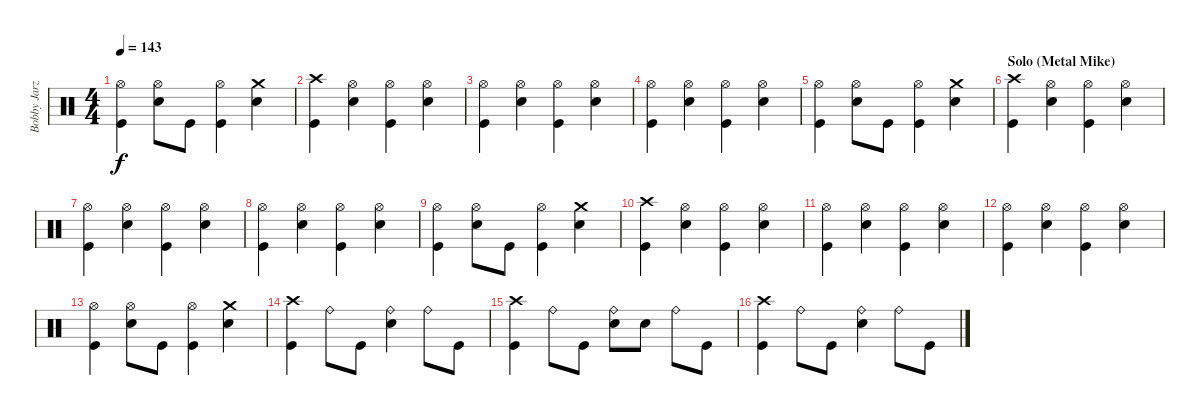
\track ("Bobby Jarzombek" "Bobby Jarz") {instrument percussion}
\staff {score}
\articulation defaults
\ts (4 4)
\tempo 143
\clef neutral
\ks c
("Hi-Hat (open)" "Kick (hit)").4{dy f} ("Hi-Hat (open)" "Electric Snare (hit)").8 "Kick (hit)".8 ("Hi-Hat (open)" "Kick (hit)").4 ("Crash medium (hit)" "Electric Snare (hit)").4 |
("Crash high (hit)" "Kick (hit)").4 ("Hi-Hat (open)" "Electric Snare (hit)").4 ("Hi-Hat (open)" "Kick (hit)").4 ("Hi-Hat (open)" "Electric Snare (hit)").4 |
("Hi-Hat (open)" "Kick (hit)").4 ("Hi-Hat (open)" "Electric Snare (hit)").4 ("Hi-Hat (open)" "Kick (hit)").4 ("Hi-Hat (open)" "Electric Snare (hit)").4 |
("Hi-Hat (open)" "Kick (hit)").4 ("Hi-Hat (open)" "Electric Snare (hit)").4 ("Hi-Hat (open)" "Kick (hit)").4 ("Hi-Hat (open)" "Electric Snare (hit)").4 |
("Hi-Hat (open)" "Kick (hit)").4 ("Hi-Hat (open)" "Electric Snare (hit)").8 "Kick (hit)".8 ("Hi-Hat (open)" "Kick (hit)").4 ("Crash medium (hit)" "Electric Snare (hit)").4 |
\section ("" "Solo (Metal Mike)")
("Crash high (hit)" "Kick (hit)").4 ("Hi-Hat (open)" "Electric Snare (hit)").4 ("Hi-Hat (open)" "Kick (hit)").4 ("Hi-Hat (open)" "Electric Snare (hit)").4 |
("Hi-Hat (open)" "Kick (hit)").4 ("Hi-Hat (open)" "Electric Snare (hit)").4 ("Hi-Hat (open)" "Kick (hit)").4 ("Hi-Hat (open)" "Electric Snare (hit)").4 |
("Hi-Hat (open)" "Kick (hit)").4 ("Hi-Hat (open)" "Electric Snare (hit)").4 ("Hi-Hat (open)" "Kick (hit)").4 ("Hi-Hat (open)" "Electric Snare (hit)").4 |
("Hi-Hat (open)" "Kick (hit)").4 ("Hi-Hat (open)" "Electric Snare (hit)").8 "Kick (hit)".8 ("Hi-Hat (open)" "Kick (hit)").4 ("Crash medium (hit)" "Electric Snare (hit)").4 |
("Crash high (hit)" "Kick (hit)").4 ("Hi-Hat (open)" "Electric Snare (hit)").4 ("Hi-Hat (open)" "Kick (hit)").4 ("Hi-Hat (open)" "Electric Snare (hit)").4 |
("Hi-Hat (open)" "Kick (hit)").4 ("Hi-Hat (open)" "Electric Snare (hit)").4 ("Hi-Hat (open)" "Kick (hit)").4 ("Hi-Hat (open)" "Electric Snare (hit)").4 |
("Hi-Hat (open)" "Kick (hit)").4 ("Hi-Hat (open)" "Electric Snare (hit)").4 ("Hi-Hat (open)" "Kick (hit)").4 ("Hi-Hat (open)" "Electric Snare (hit)").4 |
("Hi-Hat (open)" "Kick (hit)").4 ("Hi-Hat (open)" "Electric Snare (hit)").8 "Kick (hit)".8 ("Hi-Hat (open)" "Kick (hit)").4 ("Crash medium (hit)" "Electric Snare (hit)").4 |
("Crash high (hit)" "Kick (hit)").4 "Ride (bell)".8 "Kick (hit)".8 ("Ride (bell)" "Electric Snare (hit)").4 "Ride (bell)".8 "Kick (hit)".8 |
("Crash high (hit)" "Kick (hit)").4 "Ride (bell)".8 "Kick (hit)".8 ("Ride (bell)" "Electric Snare (hit)").8 "Electric Snare (hit)".8 "Ride (bell)".8 "Kick (hit)".8 |
("Crash high (hit)" "Kick (hit)").4 "Ride (bell)".8 "Kick (hit)".8 ("Ride (bell)" "Electric Snare (hit)").4 "Ride (bell)".8 "Kick (hit)".8
